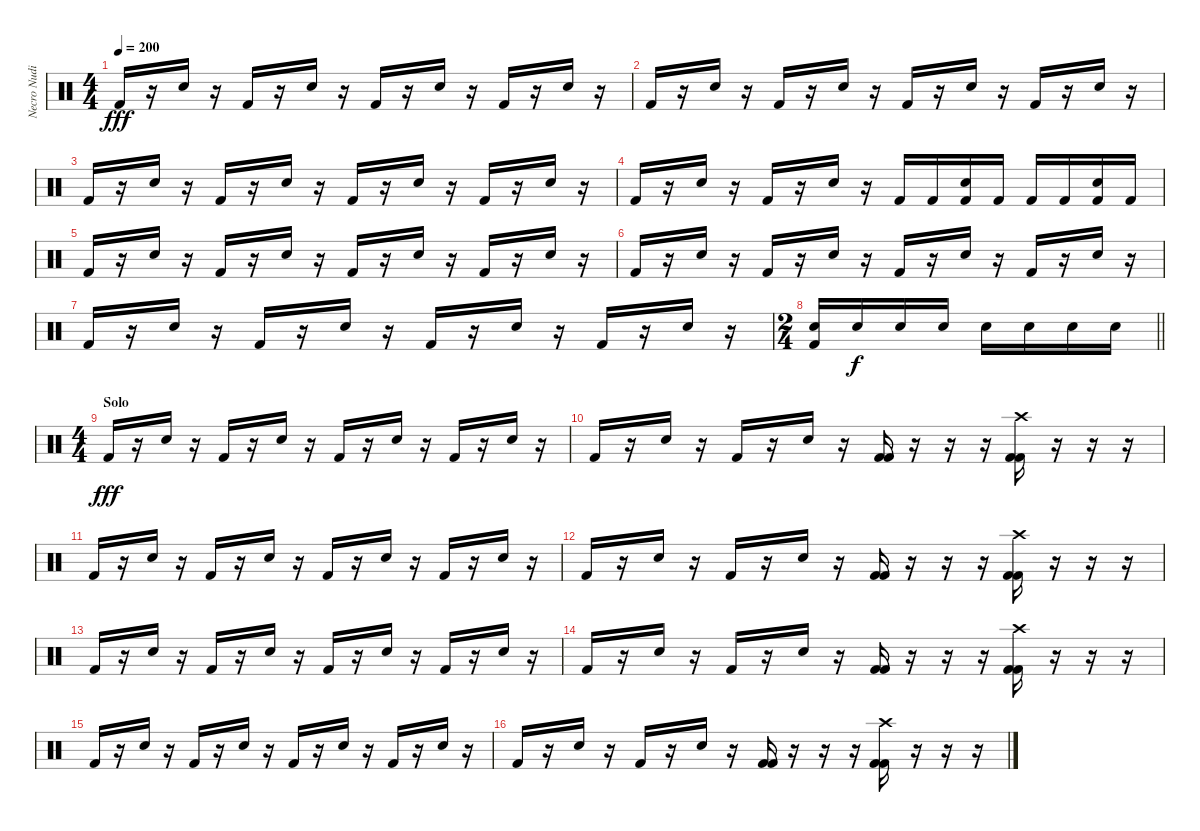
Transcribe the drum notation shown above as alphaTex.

\track ("Necro Nudist" "Necro Nudi") {instrument percussion}
\staff {score}
\articulation defaults
\ts (4 4)
\tempo 200
\clef neutral
\ks c "Kick (hit) 2".16{dy fff}
r.16 "Snare (hit) 2".16 r.16 "Kick (hit) 2".16 r.16 "Snare (hit) 2".16 r.16 "Kick (hit) 2".16 r.16 "Snare (hit) 2".16 r.16 "Kick (hit) 2".16 r.16 "Snare (hit) 2".16 r.16 |
"Kick (hit) 2".16 r.16 "Snare (hit) 2".16 r.16 "Kick (hit) 2".16 r.16 "Snare (hit) 2".16 r.16 "Kick (hit) 2".16 r.16 "Snare (hit) 2".16 r.16 "Kick (hit) 2".16 r.16 "Snare (hit) 2".16 r.16 |
"Kick (hit) 2".16 r.16 "Snare (hit) 2".16 r.16 "Kick (hit) 2".16 r.16 "Snare (hit) 2".16 r.16 "Kick (hit) 2".16 r.16 "Snare (hit) 2".16 r.16 "Kick (hit) 2".16 r.16 "Snare (hit) 2".16 r.16 |
"Kick (hit) 2".16 r.16 "Snare (hit) 2".16 r.16 "Kick (hit) 2".16 r.16 "Snare (hit) 2".16 r.16 "Kick (hit) 2".16 "Kick (hit) 2".16 ("Snare (hit) 2" "Kick (hit) 2").16 "Kick (hit) 2".16 "Kick (hit) 2".16 "Kick (hit) 2".16 ("Snare (hit) 2" "Kick (hit) 2").16 "Kick (hit) 2".16 |
"Kick (hit) 2".16 r.16 "Snare (hit) 2".16 r.16 "Kick (hit) 2".16 r.16 "Snare (hit) 2".16 r.16 "Kick (hit) 2".16 r.16 "Snare (hit) 2".16 r.16 "Kick (hit) 2".16 r.16 "Snare (hit) 2".16 r.16 |
"Kick (hit) 2".16 r.16 "Snare (hit) 2".16 r.16 "Kick (hit) 2".16 r.16 "Snare (hit) 2".16 r.16 "Kick (hit) 2".16 r.16 "Snare (hit) 2".16 r.16 "Kick (hit) 2".16 r.16 "Snare (hit) 2".16 r.16 |
"Kick (hit) 2".16 r.16 "Snare (hit) 2".16 r.16 "Kick (hit) 2".16 r.16 "Snare (hit) 2".16 r.16 "Kick (hit) 2".16 r.16 "Snare (hit) 2".16 r.16 "Kick (hit) 2".16 r.16 "Snare (hit) 2".16 r.16 |
\ts (2 4)
\barLineRight lightlight
("Snare (hit) 2" "Kick (hit) 2").16 "Snare (hit) 2".16{dy f} "Snare (hit) 2".16 "Snare (hit) 2".16 "Snare (hit) 2".16 "Snare (hit) 2".16 "Snare (hit) 2".16 "Snare (hit) 2".16 |
\ts (4 4)
\section ("" "Solo")
"Kick (hit) 2".16{dy fff} r.16 "Snare (hit) 2".16 r.16 "Kick (hit) 2".16 r.16 "Snare (hit) 2".16 r.16 "Kick (hit) 2".16 r.16 "Snare (hit) 2".16 r.16 "Kick (hit) 2".16 r.16 "Snare (hit) 2".16 r.16 |
"Kick (hit) 2".16 r.16 "Snare (hit) 2".16 r.16 "Kick (hit) 2".16 r.16 "Snare (hit) 2".16 r.16 ("Kick (hit) 2" "Kick (hit) 2").16 r.16 r.16 r.16 ("Crash high (hit)" "Kick (hit) 2" "Kick (hit) 2").16 r.16 r.16 r.16 |
"Kick (hit) 2".16 r.16 "Snare (hit) 2".16 r.16 "Kick (hit) 2".16 r.16 "Snare (hit) 2".16 r.16 "Kick (hit) 2".16 r.16 "Snare (hit) 2".16 r.16 "Kick (hit) 2".16 r.16 "Snare (hit) 2".16 r.16 |
"Kick (hit) 2".16 r.16 "Snare (hit) 2".16 r.16 "Kick (hit) 2".16 r.16 "Snare (hit) 2".16 r.16 ("Kick (hit) 2" "Kick (hit) 2").16 r.16 r.16 r.16 ("Crash high (hit)" "Kick (hit) 2" "Kick (hit) 2").16 r.16 r.16 r.16 |
"Kick (hit) 2".16 r.16 "Snare (hit) 2".16 r.16 "Kick (hit) 2".16 r.16 "Snare (hit) 2".16 r.16 "Kick (hit) 2".16 r.16 "Snare (hit) 2".16 r.16 "Kick (hit) 2".16 r.16 "Snare (hit) 2".16 r.16 |
"Kick (hit) 2".16 r.16 "Snare (hit) 2".16 r.16 "Kick (hit) 2".16 r.16 "Snare (hit) 2".16 r.16 ("Kick (hit) 2" "Kick (hit) 2").16 r.16 r.16 r.16 ("Crash high (hit)" "Kick (hit) 2" "Kick (hit) 2").16 r.16 r.16 r.16 |
"Kick (hit) 2".16 r.16 "Snare (hit) 2".16 r.16 "Kick (hit) 2".16 r.16 "Snare (hit) 2".16 r.16 "Kick (hit) 2".16 r.16 "Snare (hit) 2".16 r.16 "Kick (hit) 2".16 r.16 "Snare (hit) 2".16 r.16 |
"Kick (hit) 2".16 r.16 "Snare (hit) 2".16 r.16 "Kick (hit) 2".16 r.16 "Snare (hit) 2".16 r.16 ("Kick (hit) 2" "Kick (hit) 2").16 r.16 r.16 r.16 ("Crash high (hit)" "Kick (hit) 2" "Kick (hit) 2").16 r.16 r.16 r.16
